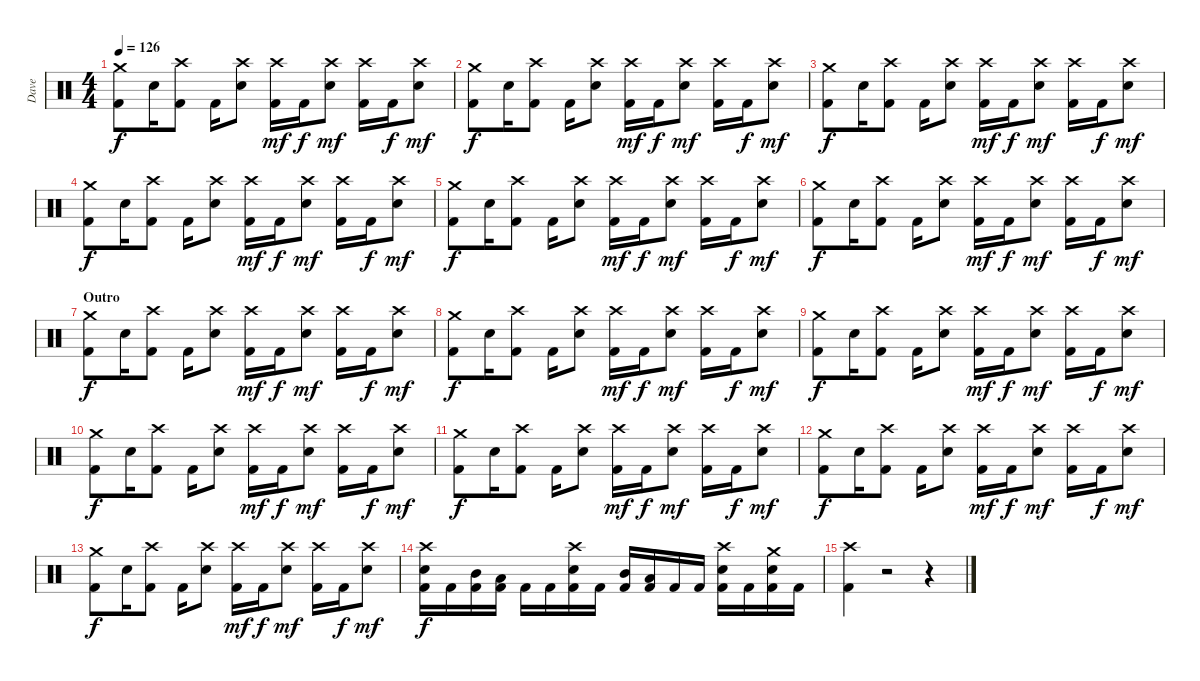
\track ("Dave" "Dave") {instrument percussion}
\staff {score}
\articulation defaults
\ts (4 4)
\tempo 126
\clef neutral
\ks c
("Kick (hit) 2" "Crash medium (hit)").8{dy f} "Electric Snare (hit)".16 ("Kick (hit) 2" "Crash high (hit)").8 "Kick (hit) 2".16 ("Electric Snare (hit)" "Crash high (hit)").8 ("Kick (hit) 2" "Crash high (hit)").16{dy mf} "Kick (hit) 2".16{dy f} ("Electric Snare (hit)" "Crash high (hit)").8{dy mf} ("Kick (hit) 2" "Crash high (hit)").16 "Kick (hit) 2".16{dy f} ("Electric Snare (hit)" "Crash high (hit)").8{dy mf} |
("Kick (hit) 2" "Crash medium (hit)").8{dy f} "Electric Snare (hit)".16 ("Kick (hit) 2" "Crash high (hit)").8 "Kick (hit) 2".16 ("Electric Snare (hit)" "Crash high (hit)").8 ("Kick (hit) 2" "Crash high (hit)").16{dy mf} "Kick (hit) 2".16{dy f} ("Electric Snare (hit)" "Crash high (hit)").8{dy mf} ("Kick (hit) 2" "Crash high (hit)").16 "Kick (hit) 2".16{dy f} ("Electric Snare (hit)" "Crash high (hit)").8{dy mf} |
("Kick (hit) 2" "Crash medium (hit)").8{dy f} "Electric Snare (hit)".16 ("Kick (hit) 2" "Crash high (hit)").8 "Kick (hit) 2".16 ("Electric Snare (hit)" "Crash high (hit)").8 ("Kick (hit) 2" "Crash high (hit)").16{dy mf} "Kick (hit) 2".16{dy f} ("Electric Snare (hit)" "Crash high (hit)").8{dy mf} ("Kick (hit) 2" "Crash high (hit)").16 "Kick (hit) 2".16{dy f} ("Electric Snare (hit)" "Crash high (hit)").8{dy mf} |
("Kick (hit) 2" "Crash medium (hit)").8{dy f} "Electric Snare (hit)".16 ("Kick (hit) 2" "Crash high (hit)").8 "Kick (hit) 2".16 ("Electric Snare (hit)" "Crash high (hit)").8 ("Kick (hit) 2" "Crash high (hit)").16{dy mf} "Kick (hit) 2".16{dy f} ("Electric Snare (hit)" "Crash high (hit)").8{dy mf} ("Kick (hit) 2" "Crash high (hit)").16 "Kick (hit) 2".16{dy f} ("Electric Snare (hit)" "Crash high (hit)").8{dy mf} |
("Kick (hit) 2" "Crash medium (hit)").8{dy f} "Electric Snare (hit)".16 ("Kick (hit) 2" "Crash high (hit)").8 "Kick (hit) 2".16 ("Electric Snare (hit)" "Crash high (hit)").8 ("Kick (hit) 2" "Crash high (hit)").16{dy mf} "Kick (hit) 2".16{dy f} ("Electric Snare (hit)" "Crash high (hit)").8{dy mf} ("Kick (hit) 2" "Crash high (hit)").16 "Kick (hit) 2".16{dy f} ("Electric Snare (hit)" "Crash high (hit)").8{dy mf} |
("Kick (hit) 2" "Crash medium (hit)").8{dy f} "Electric Snare (hit)".16 ("Kick (hit) 2" "Crash high (hit)").8 "Kick (hit) 2".16 ("Electric Snare (hit)" "Crash high (hit)").8 ("Kick (hit) 2" "Crash high (hit)").16{dy mf} "Kick (hit) 2".16{dy f} ("Electric Snare (hit)" "Crash high (hit)").8{dy mf} ("Kick (hit) 2" "Crash high (hit)").16 "Kick (hit) 2".16{dy f} ("Electric Snare (hit)" "Crash high (hit)").8{dy mf} |
\section ("" "Outro")
("Kick (hit) 2" "Crash medium (hit)").8{dy f} "Electric Snare (hit)".16 ("Kick (hit) 2" "Crash high (hit)").8 "Kick (hit) 2".16 ("Electric Snare (hit)" "Crash high (hit)").8 ("Kick (hit) 2" "Crash high (hit)").16{dy mf} "Kick (hit) 2".16{dy f} ("Electric Snare (hit)" "Crash high (hit)").8{dy mf} ("Kick (hit) 2" "Crash high (hit)").16 "Kick (hit) 2".16{dy f} ("Electric Snare (hit)" "Crash high (hit)").8{dy mf} |
("Kick (hit) 2" "Crash medium (hit)").8{dy f} "Electric Snare (hit)".16 ("Kick (hit) 2" "Crash high (hit)").8 "Kick (hit) 2".16 ("Electric Snare (hit)" "Crash high (hit)").8 ("Kick (hit) 2" "Crash high (hit)").16{dy mf} "Kick (hit) 2".16{dy f} ("Electric Snare (hit)" "Crash high (hit)").8{dy mf} ("Kick (hit) 2" "Crash high (hit)").16 "Kick (hit) 2".16{dy f} ("Electric Snare (hit)" "Crash high (hit)").8{dy mf} |
("Kick (hit) 2" "Crash medium (hit)").8{dy f} "Electric Snare (hit)".16 ("Kick (hit) 2" "Crash high (hit)").8 "Kick (hit) 2".16 ("Electric Snare (hit)" "Crash high (hit)").8 ("Kick (hit) 2" "Crash high (hit)").16{dy mf} "Kick (hit) 2".16{dy f} ("Electric Snare (hit)" "Crash high (hit)").8{dy mf} ("Kick (hit) 2" "Crash high (hit)").16 "Kick (hit) 2".16{dy f} ("Electric Snare (hit)" "Crash high (hit)").8{dy mf} |
("Kick (hit) 2" "Crash medium (hit)").8{dy f} "Electric Snare (hit)".16 ("Kick (hit) 2" "Crash high (hit)").8 "Kick (hit) 2".16 ("Electric Snare (hit)" "Crash high (hit)").8 ("Kick (hit) 2" "Crash high (hit)").16{dy mf} "Kick (hit) 2".16{dy f} ("Electric Snare (hit)" "Crash high (hit)").8{dy mf} ("Kick (hit) 2" "Crash high (hit)").16 "Kick (hit) 2".16{dy f} ("Electric Snare (hit)" "Crash high (hit)").8{dy mf} |
("Kick (hit) 2" "Crash medium (hit)").8{dy f} "Electric Snare (hit)".16 ("Kick (hit) 2" "Crash high (hit)").8 "Kick (hit) 2".16 ("Electric Snare (hit)" "Crash high (hit)").8 ("Kick (hit) 2" "Crash high (hit)").16{dy mf} "Kick (hit) 2".16{dy f} ("Electric Snare (hit)" "Crash high (hit)").8{dy mf} ("Kick (hit) 2" "Crash high (hit)").16 "Kick (hit) 2".16{dy f} ("Electric Snare (hit)" "Crash high (hit)").8{dy mf} |
("Kick (hit) 2" "Crash medium (hit)").8{dy f} "Electric Snare (hit)".16 ("Kick (hit) 2" "Crash high (hit)").8 "Kick (hit) 2".16 ("Electric Snare (hit)" "Crash high (hit)").8 ("Kick (hit) 2" "Crash high (hit)").16{dy mf} "Kick (hit) 2".16{dy f} ("Electric Snare (hit)" "Crash high (hit)").8{dy mf} ("Kick (hit) 2" "Crash high (hit)").16 "Kick (hit) 2".16{dy f} ("Electric Snare (hit)" "Crash high (hit)").8{dy mf} |
("Kick (hit) 2" "Crash medium (hit)").8{dy f} "Electric Snare (hit)".16 ("Kick (hit) 2" "Crash high (hit)").8 "Kick (hit) 2".16 ("Electric Snare (hit)" "Crash high (hit)").8 ("Kick (hit) 2" "Crash high (hit)").16{dy mf} "Kick (hit) 2".16{dy f} ("Electric Snare (hit)" "Crash high (hit)").8{dy mf} ("Kick (hit) 2" "Crash high (hit)").16 "Kick (hit) 2".16{dy f} ("Electric Snare (hit)" "Crash high (hit)").8{dy mf} |
("Kick (hit) 2" "Electric Snare (hit)" "Crash high (hit)").16{dy f} "Kick (hit) 2".16 ("Kick (hit) 2" "Mid Tom (hit)").16 ("Kick (hit) 2" "Low Tom (hit)").16 "Kick (hit) 2".16 "Kick (hit) 2".16 ("Kick (hit) 2" "Electric Snare (hit)" "Crash high (hit)").16 "Kick (hit) 2".16 ("Kick (hit) 2" "Mid Tom (hit)").16 ("Kick (hit) 2" "Low Tom (hit)").16 "Kick (hit) 2".16 "Kick (hit) 2".16 ("Kick (hit) 2" "Electric Snare (hit)" "Crash high (hit)").16 "Kick (hit) 2".16 ("Kick (hit) 2" "Electric Snare (hit)" "Crash medium (hit)").16 "Kick (hit) 2".16 |
("Kick (hit) 2" "Crash high (hit)").4 r.2 r.4
